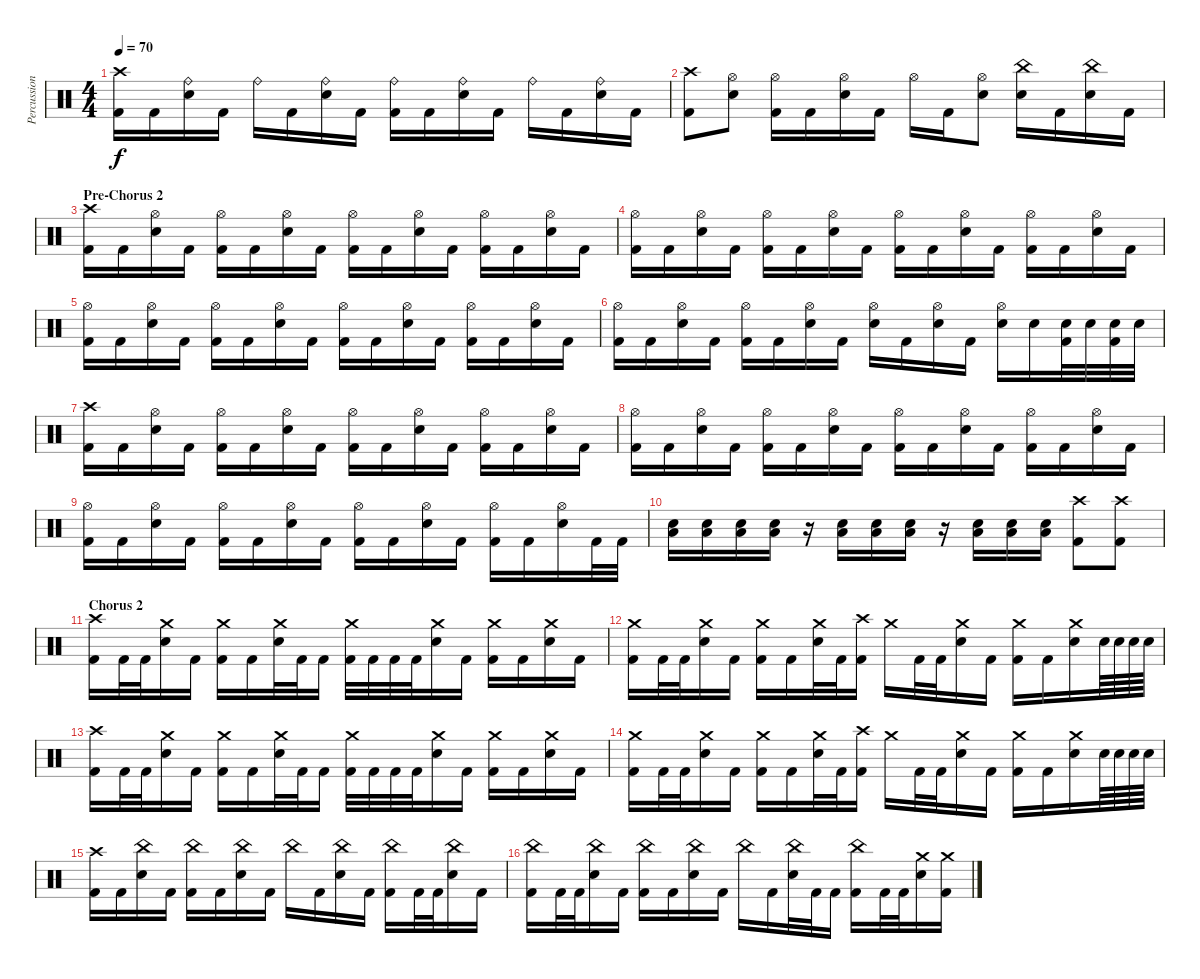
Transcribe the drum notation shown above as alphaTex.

\track ("Percussion" "Percussion") {instrument percussion}
\staff {score}
\articulation defaults
\ts (4 4)
\tempo 70
\clef neutral
\ks c
("Kick (hit) 2" "Crash high (hit)").16{dy f} "Kick (hit) 2".16 ("Electric Snare (hit)" "Ride (bell)").16 "Kick (hit) 2".16 "Ride (bell)".16 "Kick (hit) 2".16 ("Electric Snare (hit)" "Ride (bell)").16 "Kick (hit) 2".16 ("Kick (hit) 2" "Ride (bell)").16 "Kick (hit) 2".16 ("Electric Snare (hit)" "Ride (bell)").16 "Kick (hit) 2".16 "Ride (bell)".16 "Kick (hit) 2".16 ("Electric Snare (hit)" "Ride (bell)").16 "Kick (hit) 2".16 |
("Kick (hit) 2" "Crash high (hit)").8 ("Electric Snare (hit)" "Hi-Hat (open)").8 ("Kick (hit) 2" "Hi-Hat (open)").16 "Kick (hit) 2".16 ("Electric Snare (hit)" "Hi-Hat (open)").16 "Kick (hit) 2".16 "Hi-Hat (open)".16 "Kick (hit) 2".16 ("Electric Snare (hit)" "Hi-Hat (open)").8 ("Electric Snare (hit)" "China (hit)").16 "Kick (hit) 2".16 ("Electric Snare (hit)" "China (hit)").16 "Kick (hit) 2".16 |
\section ("" "Pre-Chorus 2")
("Kick (hit) 2" "Crash high (hit)").16 "Kick (hit) 2".16 ("Electric Snare (hit)" "Hi-Hat (open)").16 "Kick (hit) 2".16 ("Kick (hit) 2" "Hi-Hat (open)").16 "Kick (hit) 2".16 ("Electric Snare (hit)" "Hi-Hat (open)").16 "Kick (hit) 2".16 ("Kick (hit) 2" "Hi-Hat (open)").16 "Kick (hit) 2".16 ("Electric Snare (hit)" "Hi-Hat (open)").16 "Kick (hit) 2".16 ("Kick (hit) 2" "Hi-Hat (open)").16 "Kick (hit) 2".16 ("Electric Snare (hit)" "Hi-Hat (open)").16 "Kick (hit) 2".16 |
("Kick (hit) 2" "Hi-Hat (open)").16 "Kick (hit) 2".16 ("Electric Snare (hit)" "Hi-Hat (open)").16 "Kick (hit) 2".16 ("Kick (hit) 2" "Hi-Hat (open)").16 "Kick (hit) 2".16 ("Electric Snare (hit)" "Hi-Hat (open)").16 "Kick (hit) 2".16 ("Kick (hit) 2" "Hi-Hat (open)").16 "Kick (hit) 2".16 ("Electric Snare (hit)" "Hi-Hat (open)").16 "Kick (hit) 2".16 ("Kick (hit) 2" "Hi-Hat (open)").16 "Kick (hit) 2".16 ("Electric Snare (hit)" "Hi-Hat (open)").16 "Kick (hit) 2".16 |
("Kick (hit) 2" "Hi-Hat (open)").16 "Kick (hit) 2".16 ("Electric Snare (hit)" "Hi-Hat (open)").16 "Kick (hit) 2".16 ("Kick (hit) 2" "Hi-Hat (open)").16 "Kick (hit) 2".16 ("Electric Snare (hit)" "Hi-Hat (open)").16 "Kick (hit) 2".16 ("Kick (hit) 2" "Hi-Hat (open)").16 "Kick (hit) 2".16 ("Electric Snare (hit)" "Hi-Hat (open)").16 "Kick (hit) 2".16 ("Kick (hit) 2" "Hi-Hat (open)").16 "Kick (hit) 2".16 ("Electric Snare (hit)" "Hi-Hat (open)").16 "Kick (hit) 2".16 |
("Kick (hit) 2" "Hi-Hat (open)").16 "Kick (hit) 2".16 ("Electric Snare (hit)" "Hi-Hat (open)").16 "Kick (hit) 2".16 ("Kick (hit) 2" "Hi-Hat (open)").16 "Kick (hit) 2".16 ("Electric Snare (hit)" "Hi-Hat (open)").16 "Kick (hit) 2".16 ("Electric Snare (hit)" "Hi-Hat (open)").16 "Kick (hit) 2".16 ("Electric Snare (hit)" "Hi-Hat (open)").16 "Kick (hit) 2".16 ("Electric Snare (hit)" "Hi-Hat (open)").16 "Electric Snare (hit)".16 ("Electric Snare (hit)" "Kick (hit) 2").32 "Electric Snare (hit)".32 ("Electric Snare (hit)" "Kick (hit) 2").32 "Electric Snare (hit)".32 |
("Kick (hit) 2" "Crash high (hit)").16 "Kick (hit) 2".16 ("Electric Snare (hit)" "Hi-Hat (open)").16 "Kick (hit) 2".16 ("Kick (hit) 2" "Hi-Hat (open)").16 "Kick (hit) 2".16 ("Electric Snare (hit)" "Hi-Hat (open)").16 "Kick (hit) 2".16 ("Kick (hit) 2" "Hi-Hat (open)").16 "Kick (hit) 2".16 ("Electric Snare (hit)" "Hi-Hat (open)").16 "Kick (hit) 2".16 ("Kick (hit) 2" "Hi-Hat (open)").16 "Kick (hit) 2".16 ("Electric Snare (hit)" "Hi-Hat (open)").16 "Kick (hit) 2".16 |
("Kick (hit) 2" "Hi-Hat (open)").16 "Kick (hit) 2".16 ("Electric Snare (hit)" "Hi-Hat (open)").16 "Kick (hit) 2".16 ("Kick (hit) 2" "Hi-Hat (open)").16 "Kick (hit) 2".16 ("Electric Snare (hit)" "Hi-Hat (open)").16 "Kick (hit) 2".16 ("Kick (hit) 2" "Hi-Hat (open)").16 "Kick (hit) 2".16 ("Electric Snare (hit)" "Hi-Hat (open)").16 "Kick (hit) 2".16 ("Kick (hit) 2" "Hi-Hat (open)").16 "Kick (hit) 2".16 ("Electric Snare (hit)" "Hi-Hat (open)").16 "Kick (hit) 2".16 |
("Kick (hit) 2" "Hi-Hat (open)").16 "Kick (hit) 2".16 ("Electric Snare (hit)" "Hi-Hat (open)").16 "Kick (hit) 2".16 ("Kick (hit) 2" "Hi-Hat (open)").16 "Kick (hit) 2".16 ("Electric Snare (hit)" "Hi-Hat (open)").16 "Kick (hit) 2".16 ("Kick (hit) 2" "Hi-Hat (open)").16 "Kick (hit) 2".16 ("Electric Snare (hit)" "Hi-Hat (open)").16 "Kick (hit) 2".16 ("Kick (hit) 2" "Hi-Hat (open)").16 "Kick (hit) 2".16 ("Electric Snare (hit)" "Hi-Hat (open)").16 "Kick (hit) 2".32 "Kick (hit) 2".32 |
("Electric Snare (hit)" "Low Tom (hit)").16 ("Electric Snare (hit)" "Low Tom (hit)").16 ("Electric Snare (hit)" "Low Tom (hit)").16 ("Electric Snare (hit)" "Low Tom (hit)").16 r.16 ("Electric Snare (hit)" "Low Tom (hit)").16 ("Electric Snare (hit)" "Low Tom (hit)").16 ("Electric Snare (hit)" "Low Tom (hit)").16 r.16 ("Electric Snare (hit)" "Low Tom (hit)").16 ("Electric Snare (hit)" "Low Tom (hit)").16 ("Electric Snare (hit)" "Low Tom (hit)").16 ("Kick (hit) 2" "Crash high (hit)").8 ("Kick (hit) 2" "Crash high (hit)").8 |
\section ("" "Chorus 2")
("Kick (hit) 2" "Crash high (hit)").16 "Kick (hit) 2".32 "Kick (hit) 2".32 ("Electric Snare (hit)" "Crash medium (hit)").16 "Kick (hit) 2".16 ("Kick (hit) 2" "Crash medium (hit)").16 "Kick (hit) 2".16 ("Electric Snare (hit)" "Crash medium (hit)").32 "Kick (hit) 2".32 "Kick (hit) 2".16 ("Kick (hit) 2" "Crash medium (hit)").32 "Kick (hit) 2".32 "Kick (hit) 2".32 "Kick (hit) 2".32 ("Electric Snare (hit)" "Crash medium (hit)").16 "Kick (hit) 2".16 ("Kick (hit) 2" "Crash medium (hit)").16 "Kick (hit) 2".16 ("Electric Snare (hit)" "Crash medium (hit)").16 "Kick (hit) 2".16 |
("Kick (hit) 2" "Crash medium (hit)").16 "Kick (hit) 2".32 "Kick (hit) 2".32 ("Electric Snare (hit)" "Crash medium (hit)").16 "Kick (hit) 2".16 ("Kick (hit) 2" "Crash medium (hit)").16 "Kick (hit) 2".16 ("Electric Snare (hit)" "Crash medium (hit)").32 "Kick (hit) 2".32 ("Kick (hit) 2" "Crash high (hit)").16 "Crash medium (hit)".16 "Kick (hit) 2".32 "Kick (hit) 2".32 ("Electric Snare (hit)" "Crash medium (hit)").16 "Kick (hit) 2".16 ("Kick (hit) 2" "Crash medium (hit)").16 "Kick (hit) 2".16 ("Electric Snare (hit)" "Crash medium (hit)").16 "Electric Snare (hit)".64 "Electric Snare (hit)".64 "Electric Snare (hit)".64 "Electric Snare (hit)".64 |
("Kick (hit) 2" "Crash high (hit)").16 "Kick (hit) 2".32 "Kick (hit) 2".32 ("Electric Snare (hit)" "Crash medium (hit)").16 "Kick (hit) 2".16 ("Kick (hit) 2" "Crash medium (hit)").16 "Kick (hit) 2".16 ("Electric Snare (hit)" "Crash medium (hit)").32 "Kick (hit) 2".32 "Kick (hit) 2".16 ("Kick (hit) 2" "Crash medium (hit)").32 "Kick (hit) 2".32 "Kick (hit) 2".32 "Kick (hit) 2".32 ("Electric Snare (hit)" "Crash medium (hit)").16 "Kick (hit) 2".16 ("Kick (hit) 2" "Crash medium (hit)").16 "Kick (hit) 2".16 ("Electric Snare (hit)" "Crash medium (hit)").16 "Kick (hit) 2".16 |
("Kick (hit) 2" "Crash medium (hit)").16 "Kick (hit) 2".32 "Kick (hit) 2".32 ("Electric Snare (hit)" "Crash medium (hit)").16 "Kick (hit) 2".16 ("Kick (hit) 2" "Crash medium (hit)").16 "Kick (hit) 2".16 ("Electric Snare (hit)" "Crash medium (hit)").32 "Kick (hit) 2".32 ("Kick (hit) 2" "Crash high (hit)").16 "Crash medium (hit)".16 "Kick (hit) 2".32 "Kick (hit) 2".32 ("Electric Snare (hit)" "Crash medium (hit)").16 "Kick (hit) 2".16 ("Kick (hit) 2" "Crash medium (hit)").16 "Kick (hit) 2".16 ("Electric Snare (hit)" "Crash medium (hit)").16 "Electric Snare (hit)".64 "Electric Snare (hit)".64 "Electric Snare (hit)".64 "Electric Snare (hit)".64 |
("Kick (hit) 2" "Crash high (hit)").16 "Kick (hit) 2".16 ("Electric Snare (hit)" "China (hit)").16 "Kick (hit) 2".16 ("Kick (hit) 2" "China (hit)").16 "Kick (hit) 2".16 ("Electric Snare (hit)" "China (hit)").16 "Kick (hit) 2".16 "China (hit)".16 "Kick (hit) 2".16 ("Electric Snare (hit)" "China (hit)").16 "Kick (hit) 2".16 ("Kick (hit) 2" "China (hit)").16 "Kick (hit) 2".32 "Kick (hit) 2".32 ("Electric Snare (hit)" "China (hit)").16 "Kick (hit) 2".16 |
("Kick (hit) 2" "China (hit)").16 "Kick (hit) 2".32 "Kick (hit) 2".32 ("Electric Snare (hit)" "China (hit)").16 "Kick (hit) 2".16 ("Kick (hit) 2" "China (hit)").16 "Kick (hit) 2".16 ("Electric Snare (hit)" "China (hit)").16 "Kick (hit) 2".16 "China (hit)".16 "Kick (hit) 2".16 ("Electric Snare (hit)" "China (hit)").32 "Kick (hit) 2".32 "Kick (hit) 2".16 ("Kick (hit) 2" "China (hit)").16 "Kick (hit) 2".32 "Kick (hit) 2".32 ("Electric Snare (hit)" "Crash medium (hit)").16 ("Kick (hit) 2" "Crash medium (hit)").16
